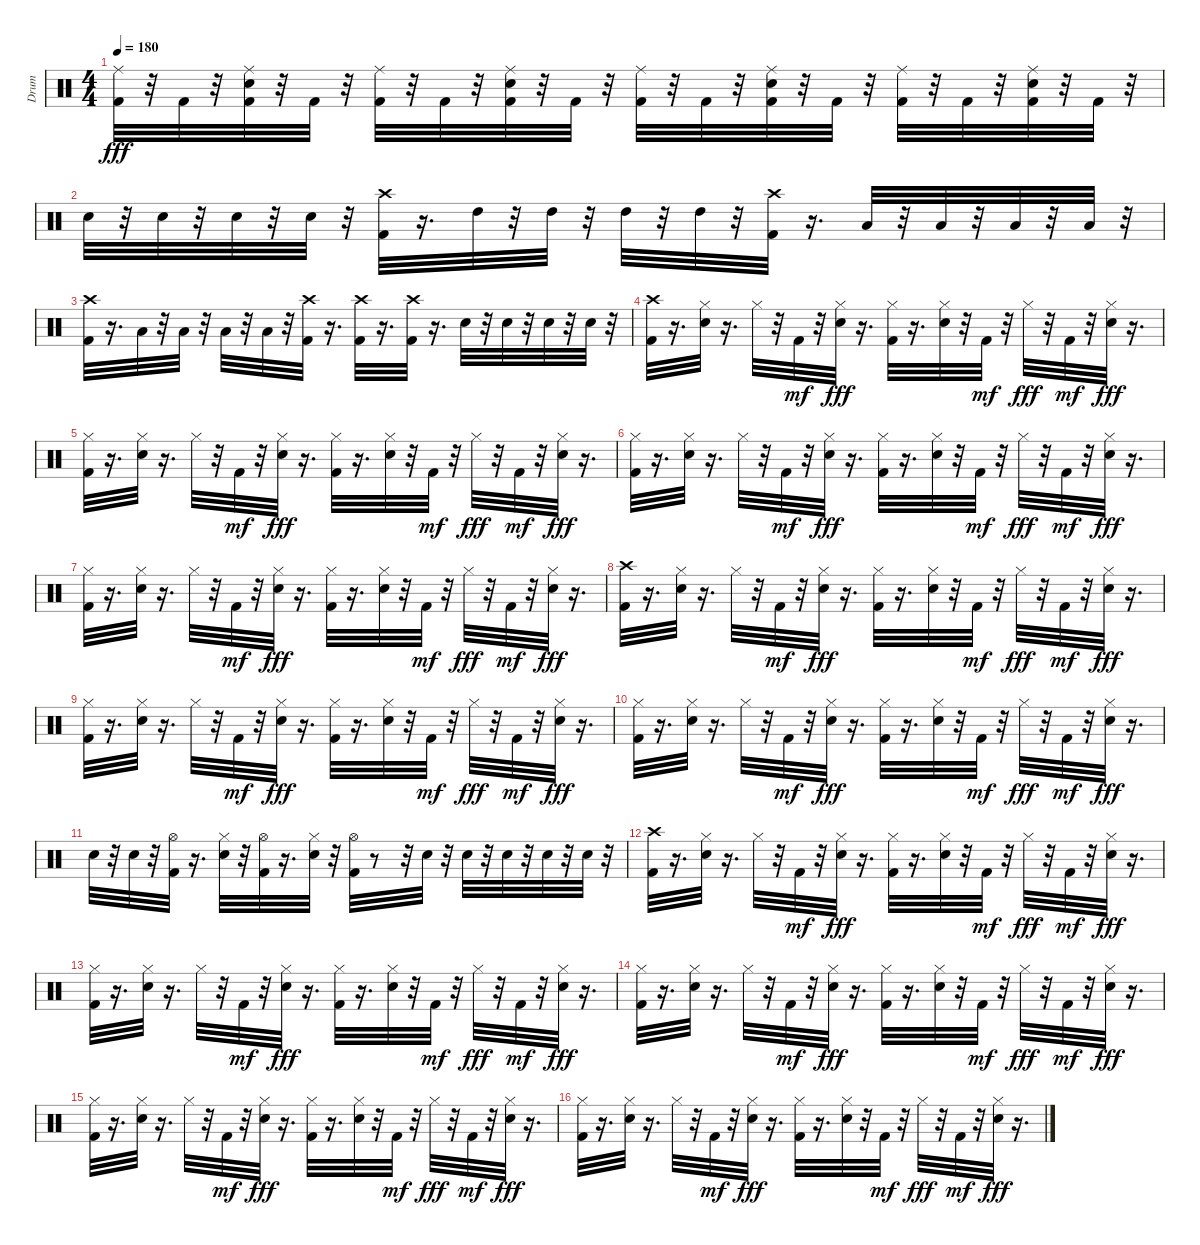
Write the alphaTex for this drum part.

\track ("Drum" "Drum") {instrument percussion}
\staff {score}
\articulation defaults
\ts (4 4)
\tempo 180
\clef neutral
\ks c
("Ride (middle)" "Kick (hit) 2").32{dy fff} r.32 "Kick (hit) 2".32 r.32 ("Ride (middle)" "Kick (hit) 2" "Snare (hit) 2").32 r.32 "Kick (hit) 2".32 r.32 ("Ride (middle)" "Kick (hit) 2").32 r.32 "Kick (hit) 2".32 r.32 ("Ride (middle)" "Kick (hit) 2" "Snare (hit) 2").32 r.32 "Kick (hit) 2".32 r.32 ("Ride (middle)" "Kick (hit) 2").32 r.32 "Kick (hit) 2".32 r.32 ("Ride (middle)" "Kick (hit) 2" "Snare (hit) 2").32 r.32 "Kick (hit) 2".32 r.32 ("Ride (middle)" "Kick (hit) 2").32 r.32 "Kick (hit) 2".32 r.32 ("Ride (middle)" "Kick (hit) 2" "Snare (hit) 2").32 r.32 "Kick (hit) 2".32 r.32 |
"Snare (hit) 2".32 r.32 "Snare (hit) 2".32 r.32 "Snare (hit) 2".32 r.32 "Snare (hit) 2".32 r.32 ("Crash high (hit)" "Kick (hit) 2").32 r.16{d} "High Tom (hit)".32 r.32 "High Tom (hit)".32 r.32 "High Tom (hit)".32 r.32 "High Tom (hit)".32 r.32 ("Crash high (hit)" "Kick (hit) 2").32 r.16{d} "Low Tom (hit)".32 r.32 "Low Tom (hit)".32 r.32 "Low Tom (hit)".32 r.32 "Low Tom (hit)".32 r.32 |
("Kick (hit) 2" "Crash high (hit)").32 r.16{d} "Low Floor Tom (hit)".32 r.32 "Low Floor Tom (hit)".32 r.32 "Low Floor Tom (hit)".32 r.32 "Low Floor Tom (hit)".32 r.32 ("Crash high (hit)" "Kick (hit) 2").32 r.16{d} ("Crash high (hit)" "Kick (hit) 2").32 r.16{d} ("Crash high (hit)" "Kick (hit) 2").32 r.16{d} "Snare (hit) 2".32 r.32 "Snare (hit) 2".32 r.32 "Snare (hit) 2".32 r.32 "Snare (hit) 2".32 r.32 |
("Kick (hit) 2" "Crash high (hit)").32 r.16{d} ("Hi-Hat (closed)" "Snare (hit) 2").32 r.16{d} "Hi-Hat (closed)".32 r.32 "Kick (hit) 2".32{dy mf} r.32 ("Hi-Hat (closed)" "Snare (hit) 2").32{dy fff} r.16{d} ("Kick (hit) 2" "Hi-Hat (closed)").32 r.16{d} ("Hi-Hat (closed)" "Snare (hit) 2").32 r.32 "Kick (hit) 2".32{dy mf} r.32 "Hi-Hat (closed)".32{dy fff} r.32 "Kick (hit) 2".32{dy mf} r.32 ("Hi-Hat (closed)" "Snare (hit) 2").32{dy fff} r.16{d} |
("Kick (hit) 2" "Hi-Hat (closed)").32 r.16{d} ("Hi-Hat (closed)" "Snare (hit) 2").32 r.16{d} "Hi-Hat (closed)".32 r.32 "Kick (hit) 2".32{dy mf} r.32 ("Hi-Hat (closed)" "Snare (hit) 2").32{dy fff} r.16{d} ("Kick (hit) 2" "Hi-Hat (closed)").32 r.16{d} ("Hi-Hat (closed)" "Snare (hit) 2").32 r.32 "Kick (hit) 2".32{dy mf} r.32 "Hi-Hat (closed)".32{dy fff} r.32 "Kick (hit) 2".32{dy mf} r.32 ("Hi-Hat (closed)" "Snare (hit) 2").32{dy fff} r.16{d} |
("Kick (hit) 2" "Hi-Hat (closed)").32 r.16{d} ("Hi-Hat (closed)" "Snare (hit) 2").32 r.16{d} "Hi-Hat (closed)".32 r.32 "Kick (hit) 2".32{dy mf} r.32 ("Hi-Hat (closed)" "Snare (hit) 2").32{dy fff} r.16{d} ("Kick (hit) 2" "Hi-Hat (closed)").32 r.16{d} ("Hi-Hat (closed)" "Snare (hit) 2").32 r.32 "Kick (hit) 2".32{dy mf} r.32 "Hi-Hat (closed)".32{dy fff} r.32 "Kick (hit) 2".32{dy mf} r.32 ("Hi-Hat (closed)" "Snare (hit) 2").32{dy fff} r.16{d} |
("Kick (hit) 2" "Hi-Hat (closed)").32 r.16{d} ("Hi-Hat (closed)" "Snare (hit) 2").32 r.16{d} "Hi-Hat (closed)".32 r.32 "Kick (hit) 2".32{dy mf} r.32 ("Hi-Hat (closed)" "Snare (hit) 2").32{dy fff} r.16{d} ("Kick (hit) 2" "Hi-Hat (closed)").32 r.16{d} ("Hi-Hat (closed)" "Snare (hit) 2").32 r.32 "Kick (hit) 2".32{dy mf} r.32 "Hi-Hat (closed)".32{dy fff} r.32 "Kick (hit) 2".32{dy mf} r.32 ("Hi-Hat (closed)" "Snare (hit) 2").32{dy fff} r.16{d} |
("Kick (hit) 2" "Crash high (hit)").32 r.16{d} ("Hi-Hat (closed)" "Snare (hit) 2").32 r.16{d} "Hi-Hat (closed)".32 r.32 "Kick (hit) 2".32{dy mf} r.32 ("Hi-Hat (closed)" "Snare (hit) 2").32{dy fff} r.16{d} ("Kick (hit) 2" "Hi-Hat (closed)").32 r.16{d} ("Hi-Hat (closed)" "Snare (hit) 2").32 r.32 "Kick (hit) 2".32{dy mf} r.32 "Hi-Hat (closed)".32{dy fff} r.32 "Kick (hit) 2".32{dy mf} r.32 ("Hi-Hat (closed)" "Snare (hit) 2").32{dy fff} r.16{d} |
("Kick (hit) 2" "Hi-Hat (closed)").32 r.16{d} ("Hi-Hat (closed)" "Snare (hit) 2").32 r.16{d} "Hi-Hat (closed)".32 r.32 "Kick (hit) 2".32{dy mf} r.32 ("Hi-Hat (closed)" "Snare (hit) 2").32{dy fff} r.16{d} ("Kick (hit) 2" "Hi-Hat (closed)").32 r.16{d} ("Hi-Hat (closed)" "Snare (hit) 2").32 r.32 "Kick (hit) 2".32{dy mf} r.32 "Hi-Hat (closed)".32{dy fff} r.32 "Kick (hit) 2".32{dy mf} r.32 ("Hi-Hat (closed)" "Snare (hit) 2").32{dy fff} r.16{d} |
("Kick (hit) 2" "Hi-Hat (closed)").32 r.16{d} ("Hi-Hat (closed)" "Snare (hit) 2").32 r.16{d} "Hi-Hat (closed)".32 r.32 "Kick (hit) 2".32{dy mf} r.32 ("Hi-Hat (closed)" "Snare (hit) 2").32{dy fff} r.16{d} ("Kick (hit) 2" "Hi-Hat (closed)").32 r.16{d} ("Hi-Hat (closed)" "Snare (hit) 2").32 r.32 "Kick (hit) 2".32{dy mf} r.32 "Hi-Hat (closed)".32{dy fff} r.32 "Kick (hit) 2".32{dy mf} r.32 ("Hi-Hat (closed)" "Snare (hit) 2").32{dy fff} r.16{d} |
"Snare (hit) 2".32 r.32 "Snare (hit) 2".32 r.32 ("Kick (hit) 2" "Hi-Hat (open)").32 r.16{d} ("Snare (hit) 2" "Hi-Hat (closed)").32 r.32 ("Kick (hit) 2" "Hi-Hat (open)").32 r.16{d} ("Snare (hit) 2" "Hi-Hat (closed)").32 r.32 ("Kick (hit) 2" "Hi-Hat (open)").32 r.8 r.32 "Snare (hit) 2".32 r.32 "Snare (hit) 2".32 r.32 "Snare (hit) 2".32 r.32 "Snare (hit) 2".32 r.32 "Snare (hit) 2".32 r.32 |
("Kick (hit) 2" "Crash high (hit)").32 r.16{d} ("Hi-Hat (closed)" "Snare (hit) 2").32 r.16{d} "Hi-Hat (closed)".32 r.32 "Kick (hit) 2".32{dy mf} r.32 ("Hi-Hat (closed)" "Snare (hit) 2").32{dy fff} r.16{d} ("Kick (hit) 2" "Hi-Hat (closed)").32 r.16{d} ("Hi-Hat (closed)" "Snare (hit) 2").32 r.32 "Kick (hit) 2".32{dy mf} r.32 "Hi-Hat (closed)".32{dy fff} r.32 "Kick (hit) 2".32{dy mf} r.32 ("Hi-Hat (closed)" "Snare (hit) 2").32{dy fff} r.16{d} |
("Kick (hit) 2" "Hi-Hat (closed)").32 r.16{d} ("Hi-Hat (closed)" "Snare (hit) 2").32 r.16{d} "Hi-Hat (closed)".32 r.32 "Kick (hit) 2".32{dy mf} r.32 ("Hi-Hat (closed)" "Snare (hit) 2").32{dy fff} r.16{d} ("Kick (hit) 2" "Hi-Hat (closed)").32 r.16{d} ("Hi-Hat (closed)" "Snare (hit) 2").32 r.32 "Kick (hit) 2".32{dy mf} r.32 "Hi-Hat (closed)".32{dy fff} r.32 "Kick (hit) 2".32{dy mf} r.32 ("Hi-Hat (closed)" "Snare (hit) 2").32{dy fff} r.16{d} |
("Kick (hit) 2" "Hi-Hat (closed)").32 r.16{d} ("Hi-Hat (closed)" "Snare (hit) 2").32 r.16{d} "Hi-Hat (closed)".32 r.32 "Kick (hit) 2".32{dy mf} r.32 ("Hi-Hat (closed)" "Snare (hit) 2").32{dy fff} r.16{d} ("Kick (hit) 2" "Hi-Hat (closed)").32 r.16{d} ("Hi-Hat (closed)" "Snare (hit) 2").32 r.32 "Kick (hit) 2".32{dy mf} r.32 "Hi-Hat (closed)".32{dy fff} r.32 "Kick (hit) 2".32{dy mf} r.32 ("Hi-Hat (closed)" "Snare (hit) 2").32{dy fff} r.16{d} |
("Kick (hit) 2" "Hi-Hat (closed)").32 r.16{d} ("Hi-Hat (closed)" "Snare (hit) 2").32 r.16{d} "Hi-Hat (closed)".32 r.32 "Kick (hit) 2".32{dy mf} r.32 ("Hi-Hat (closed)" "Snare (hit) 2").32{dy fff} r.16{d} ("Kick (hit) 2" "Hi-Hat (closed)").32 r.16{d} ("Hi-Hat (closed)" "Snare (hit) 2").32 r.32 "Kick (hit) 2".32{dy mf} r.32 "Hi-Hat (closed)".32{dy fff} r.32 "Kick (hit) 2".32{dy mf} r.32 ("Hi-Hat (closed)" "Snare (hit) 2").32{dy fff} r.16{d} |
("Kick (hit) 2" "Hi-Hat (closed)").32 r.16{d} ("Hi-Hat (closed)" "Snare (hit) 2").32 r.16{d} "Hi-Hat (closed)".32 r.32 "Kick (hit) 2".32{dy mf} r.32 ("Hi-Hat (closed)" "Snare (hit) 2").32{dy fff} r.16{d} ("Kick (hit) 2" "Hi-Hat (closed)").32 r.16{d} ("Hi-Hat (closed)" "Snare (hit) 2").32 r.32 "Kick (hit) 2".32{dy mf} r.32 "Hi-Hat (closed)".32{dy fff} r.32 "Kick (hit) 2".32{dy mf} r.32 ("Hi-Hat (closed)" "Snare (hit) 2").32{dy fff} r.16{d}
